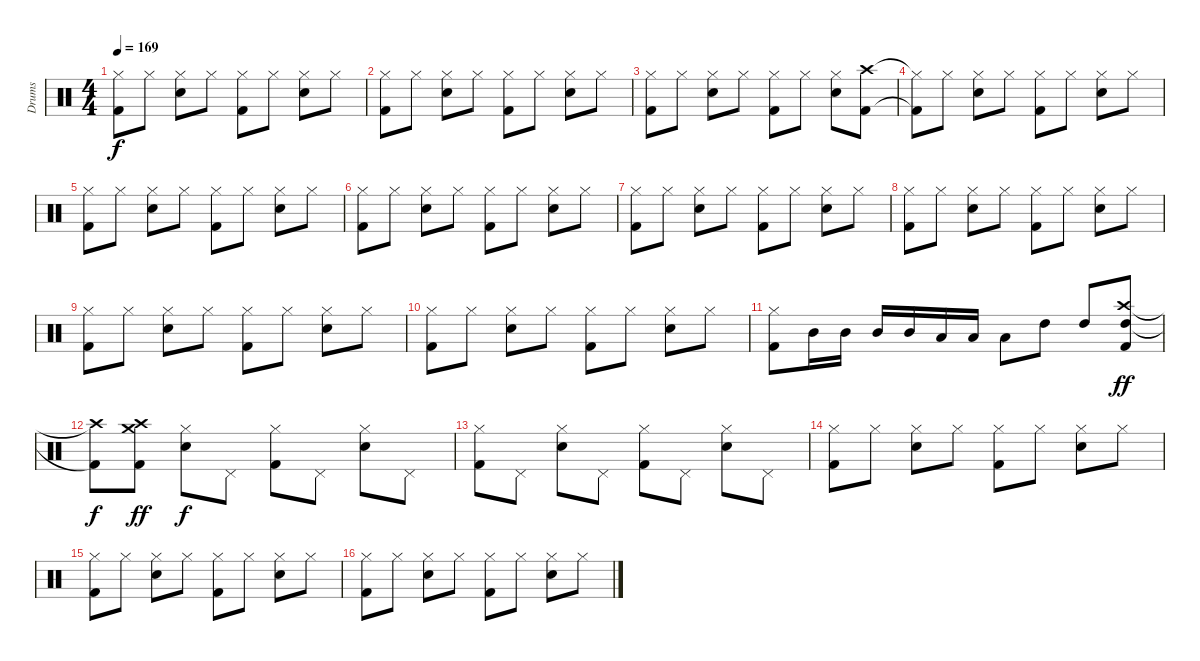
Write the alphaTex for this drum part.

\track ("Drums" "Drums") {instrument percussion}
\staff {score}
\articulation defaults
\ts (4 4)
\tempo 169
\clef neutral
\ks c
("Hi-Hat (closed)" "Kick (hit) 2").8{dy f} "Hi-Hat (closed)".8 ("Hi-Hat (closed)" "Snare (hit) 2").8 "Hi-Hat (closed)".8 ("Hi-Hat (closed)" "Kick (hit) 2").8 "Hi-Hat (closed)".8 ("Hi-Hat (closed)" "Snare (hit) 2").8 "Hi-Hat (closed)".8 |
("Hi-Hat (closed)" "Kick (hit) 2").8 "Hi-Hat (closed)".8 ("Hi-Hat (closed)" "Snare (hit) 2").8 "Hi-Hat (closed)".8 ("Hi-Hat (closed)" "Kick (hit) 2").8 "Hi-Hat (closed)".8 ("Hi-Hat (closed)" "Snare (hit) 2").8 "Hi-Hat (closed)".8 |
("Hi-Hat (closed)" "Kick (hit) 2").8 "Hi-Hat (closed)".8 ("Hi-Hat (closed)" "Snare (hit) 2").8 "Hi-Hat (closed)".8 ("Hi-Hat (closed)" "Kick (hit) 2").8 "Hi-Hat (closed)".8 ("Hi-Hat (closed)" "Snare (hit) 2").8 ("Crash high (hit)" "Kick (hit) 2").8 |
("Hi-Hat (closed)"{t} "Kick (hit) 2"{t}).8 "Hi-Hat (closed)".8 ("Hi-Hat (closed)" "Snare (hit) 2").8 "Hi-Hat (closed)".8 ("Hi-Hat (closed)" "Kick (hit) 2").8 "Hi-Hat (closed)".8 ("Hi-Hat (closed)" "Snare (hit) 2").8 "Hi-Hat (closed)".8 |
("Hi-Hat (closed)" "Kick (hit) 2").8 "Hi-Hat (closed)".8 ("Hi-Hat (closed)" "Snare (hit) 2").8 "Hi-Hat (closed)".8 ("Hi-Hat (closed)" "Kick (hit) 2").8 "Hi-Hat (closed)".8 ("Hi-Hat (closed)" "Snare (hit) 2").8 "Hi-Hat (closed)".8 |
("Hi-Hat (closed)" "Kick (hit) 2").8 "Hi-Hat (closed)".8 ("Hi-Hat (closed)" "Snare (hit) 2").8 "Hi-Hat (closed)".8 ("Hi-Hat (closed)" "Kick (hit) 2").8 "Hi-Hat (closed)".8 ("Hi-Hat (closed)" "Snare (hit) 2").8 "Hi-Hat (closed)".8 |
("Hi-Hat (closed)" "Kick (hit) 2").8 "Hi-Hat (closed)".8 ("Hi-Hat (closed)" "Snare (hit) 2").8 "Hi-Hat (closed)".8 ("Hi-Hat (closed)" "Kick (hit) 2").8 "Hi-Hat (closed)".8 ("Hi-Hat (closed)" "Snare (hit) 2").8 "Hi-Hat (closed)".8 |
("Hi-Hat (closed)" "Kick (hit) 2").8 "Hi-Hat (closed)".8 ("Hi-Hat (closed)" "Snare (hit) 2").8 "Hi-Hat (closed)".8 ("Hi-Hat (closed)" "Kick (hit) 2").8 "Hi-Hat (closed)".8 ("Hi-Hat (closed)" "Snare (hit) 2").8 "Hi-Hat (closed)".8 |
("Hi-Hat (closed)" "Kick (hit) 2").8 "Hi-Hat (closed)".8 ("Hi-Hat (closed)" "Snare (hit) 2").8 "Hi-Hat (closed)".8 ("Hi-Hat (closed)" "Kick (hit) 2").8 "Hi-Hat (closed)".8 ("Hi-Hat (closed)" "Snare (hit) 2").8 "Hi-Hat (closed)".8 |
("Hi-Hat (closed)" "Kick (hit) 2").8 "Hi-Hat (closed)".8 ("Hi-Hat (closed)" "Snare (hit) 2").8 "Hi-Hat (closed)".8 ("Hi-Hat (closed)" "Kick (hit) 2").8 "Hi-Hat (closed)".8 ("Hi-Hat (closed)" "Snare (hit) 2").8 "Hi-Hat (closed)".8 |
("Hi-Hat (closed)" "Kick (hit) 2").8 "Mid Tom (hit)".16 "Mid Tom (hit)".16 "Mid Tom (hit)".16 "Mid Tom (hit)".16 "Low Tom (hit)".16 "Low Tom (hit)".16 "Low Tom (hit)".8 "High Tom (hit)".8 "High Tom (hit)".8 ("Crash high (hit)" "High Tom (hit)" "Kick (hit) 2").8{dy ff} |
("Crash high (hit)"{t} "Kick (hit) 2"{t}).8{dy f} ("Crash high (hit)" "Crash medium (hit)" "Kick (hit) 2").8{dy ff} ("Hi-Hat (closed)" "Snare (hit) 2").8{dy f} "Pedal Hi-Hat (hit)".8 ("Hi-Hat (closed)" "Kick (hit) 2").8 "Pedal Hi-Hat (hit)".8 ("Hi-Hat (closed)" "Snare (hit) 2").8 "Pedal Hi-Hat (hit)".8 |
("Hi-Hat (closed)" "Kick (hit) 2").8 "Pedal Hi-Hat (hit)".8 ("Hi-Hat (closed)" "Snare (hit) 2").8 "Pedal Hi-Hat (hit)".8 ("Hi-Hat (closed)" "Kick (hit) 2").8 "Pedal Hi-Hat (hit)".8 ("Hi-Hat (closed)" "Snare (hit) 2").8 "Pedal Hi-Hat (hit)".8 |
("Hi-Hat (closed)" "Kick (hit) 2").8 "Hi-Hat (closed)".8 ("Hi-Hat (closed)" "Snare (hit) 2").8 "Hi-Hat (closed)".8 ("Hi-Hat (closed)" "Kick (hit) 2").8 "Hi-Hat (closed)".8 ("Hi-Hat (closed)" "Snare (hit) 2").8 "Hi-Hat (closed)".8 |
("Hi-Hat (closed)" "Kick (hit) 2").8 "Hi-Hat (closed)".8 ("Hi-Hat (closed)" "Snare (hit) 2").8 "Hi-Hat (closed)".8 ("Hi-Hat (closed)" "Kick (hit) 2").8 "Hi-Hat (closed)".8 ("Hi-Hat (closed)" "Snare (hit) 2").8 "Hi-Hat (closed)".8 |
("Hi-Hat (closed)" "Kick (hit) 2").8 "Hi-Hat (closed)".8 ("Hi-Hat (closed)" "Snare (hit) 2").8 "Hi-Hat (closed)".8 ("Hi-Hat (closed)" "Kick (hit) 2").8 "Hi-Hat (closed)".8 ("Hi-Hat (closed)" "Snare (hit) 2").8 "Hi-Hat (closed)".8
